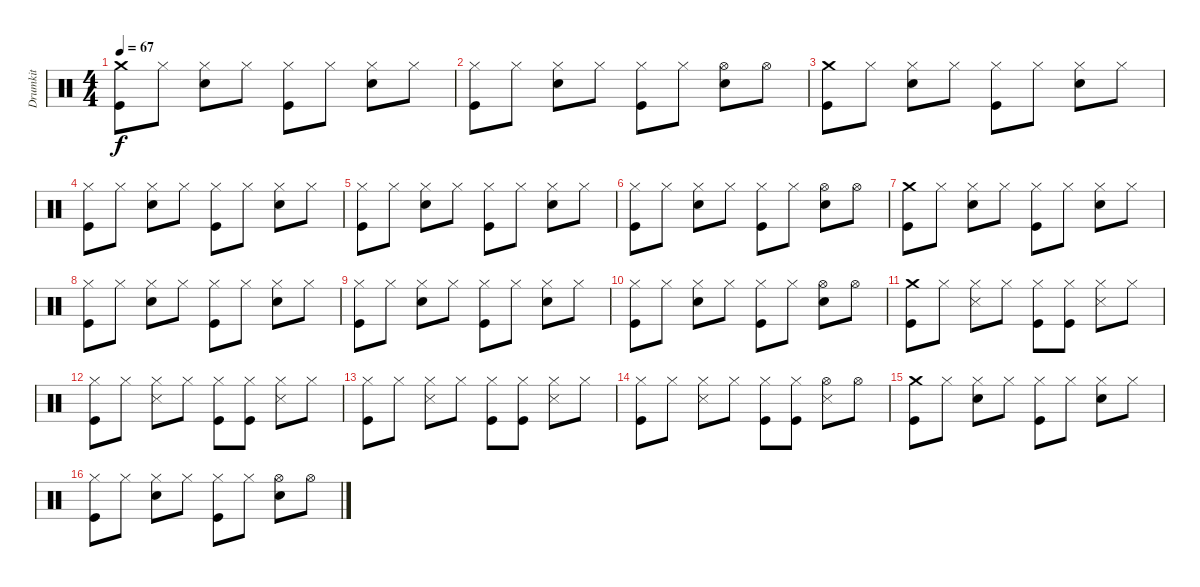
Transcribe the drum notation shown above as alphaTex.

\track ("Drumkit" "Drumkit") {instrument percussion}
\staff {score}
\articulation defaults
\ts (4 4)
\tempo 67
\clef neutral
\ks c
("Kick (hit)" "Crash medium (hit)").8{dy f} "Hi-Hat (closed)".8 ("Hi-Hat (closed)" "Snare (hit) 2").8 "Hi-Hat (closed)".8 ("Hi-Hat (closed)" "Kick (hit)").8 "Hi-Hat (closed)".8 ("Hi-Hat (closed)" "Snare (hit) 2").8 "Hi-Hat (closed)".8 |
("Hi-Hat (closed)" "Kick (hit)").8 "Hi-Hat (closed)".8 ("Hi-Hat (closed)" "Snare (hit) 2").8 "Hi-Hat (closed)".8 ("Hi-Hat (closed)" "Kick (hit)").8 "Hi-Hat (closed)".8 ("Snare (hit) 2" "Hi-Hat (open)").8 "Hi-Hat (open)".8 |
("Kick (hit)" "Crash medium (hit)").8 "Hi-Hat (closed)".8 ("Hi-Hat (closed)" "Snare (hit) 2").8 "Hi-Hat (closed)".8 ("Hi-Hat (closed)" "Kick (hit)").8 "Hi-Hat (closed)".8 ("Hi-Hat (closed)" "Snare (hit) 2").8 "Hi-Hat (closed)".8 |
("Hi-Hat (closed)" "Kick (hit)").8 "Hi-Hat (closed)".8 ("Hi-Hat (closed)" "Snare (hit) 2").8 "Hi-Hat (closed)".8 ("Hi-Hat (closed)" "Kick (hit)").8 "Hi-Hat (closed)".8 ("Hi-Hat (closed)" "Snare (hit) 2").8 "Hi-Hat (closed)".8 |
("Kick (hit)" "Hi-Hat (closed)").8 "Hi-Hat (closed)".8 ("Hi-Hat (closed)" "Snare (hit) 2").8 "Hi-Hat (closed)".8 ("Hi-Hat (closed)" "Kick (hit)").8 "Hi-Hat (closed)".8 ("Hi-Hat (closed)" "Snare (hit) 2").8 "Hi-Hat (closed)".8 |
("Hi-Hat (closed)" "Kick (hit)").8 "Hi-Hat (closed)".8 ("Hi-Hat (closed)" "Snare (hit) 2").8 "Hi-Hat (closed)".8 ("Hi-Hat (closed)" "Kick (hit)").8 "Hi-Hat (closed)".8 ("Snare (hit) 2" "Hi-Hat (open)").8 "Hi-Hat (open)".8 |
("Kick (hit)" "Crash medium (hit)").8 "Hi-Hat (closed)".8 ("Hi-Hat (closed)" "Snare (hit) 2").8 "Hi-Hat (closed)".8 ("Hi-Hat (closed)" "Kick (hit)").8 "Hi-Hat (closed)".8 ("Hi-Hat (closed)" "Snare (hit) 2").8 "Hi-Hat (closed)".8 |
("Hi-Hat (closed)" "Kick (hit)").8 "Hi-Hat (closed)".8 ("Hi-Hat (closed)" "Snare (hit) 2").8 "Hi-Hat (closed)".8 ("Hi-Hat (closed)" "Kick (hit)").8 "Hi-Hat (closed)".8 ("Hi-Hat (closed)" "Snare (hit) 2").8 "Hi-Hat (closed)".8 |
("Hi-Hat (closed)" "Kick (hit)").8 "Hi-Hat (closed)".8 ("Hi-Hat (closed)" "Snare (hit) 2").8 "Hi-Hat (closed)".8 ("Hi-Hat (closed)" "Kick (hit)").8 "Hi-Hat (closed)".8 ("Hi-Hat (closed)" "Snare (hit) 2").8 "Hi-Hat (closed)".8 |
("Hi-Hat (closed)" "Kick (hit)").8 "Hi-Hat (closed)".8 ("Hi-Hat (closed)" "Snare (hit) 2").8 "Hi-Hat (closed)".8 ("Hi-Hat (closed)" "Kick (hit)").8 "Hi-Hat (closed)".8 ("Snare (hit) 2" "Hi-Hat (open)").8 "Hi-Hat (open)".8 |
("Kick (hit)" "Crash medium (hit)").8 "Hi-Hat (closed)".8 ("Hi-Hat (closed)" "Snare (side stick) 3").8 "Hi-Hat (closed)".8 ("Hi-Hat (closed)" "Kick (hit)").8 ("Hi-Hat (closed)" "Kick (hit)").8 ("Hi-Hat (closed)" "Snare (side stick) 3").8 "Hi-Hat (closed)".8 |
("Hi-Hat (closed)" "Kick (hit)").8 "Hi-Hat (closed)".8 ("Hi-Hat (closed)" "Snare (side stick) 3").8 "Hi-Hat (closed)".8 ("Hi-Hat (closed)" "Kick (hit)").8 ("Hi-Hat (closed)" "Kick (hit)").8 ("Hi-Hat (closed)" "Snare (side stick) 3").8 "Hi-Hat (closed)".8 |
("Hi-Hat (closed)" "Kick (hit)").8 "Hi-Hat (closed)".8 ("Hi-Hat (closed)" "Snare (side stick) 3").8 "Hi-Hat (closed)".8 ("Hi-Hat (closed)" "Kick (hit)").8 ("Hi-Hat (closed)" "Kick (hit)").8 ("Hi-Hat (closed)" "Snare (side stick) 3").8 "Hi-Hat (closed)".8 |
("Hi-Hat (closed)" "Kick (hit)").8 "Hi-Hat (closed)".8 ("Hi-Hat (closed)" "Snare (side stick) 3").8 "Hi-Hat (closed)".8 ("Hi-Hat (closed)" "Kick (hit)").8 ("Hi-Hat (closed)" "Kick (hit)").8 ("Snare (side stick) 3" "Hi-Hat (open)").8 "Hi-Hat (open)".8 |
("Kick (hit)" "Crash medium (hit)").8 "Hi-Hat (closed)".8 ("Hi-Hat (closed)" "Snare (hit) 2").8 "Hi-Hat (closed)".8 ("Hi-Hat (closed)" "Kick (hit)").8 "Hi-Hat (closed)".8 ("Hi-Hat (closed)" "Snare (hit) 2").8 "Hi-Hat (closed)".8 |
("Hi-Hat (closed)" "Kick (hit)").8 "Hi-Hat (closed)".8 ("Hi-Hat (closed)" "Snare (hit) 2").8 "Hi-Hat (closed)".8 ("Hi-Hat (closed)" "Kick (hit)").8 "Hi-Hat (closed)".8 ("Snare (hit) 2" "Hi-Hat (open)").8 "Hi-Hat (open)".8
